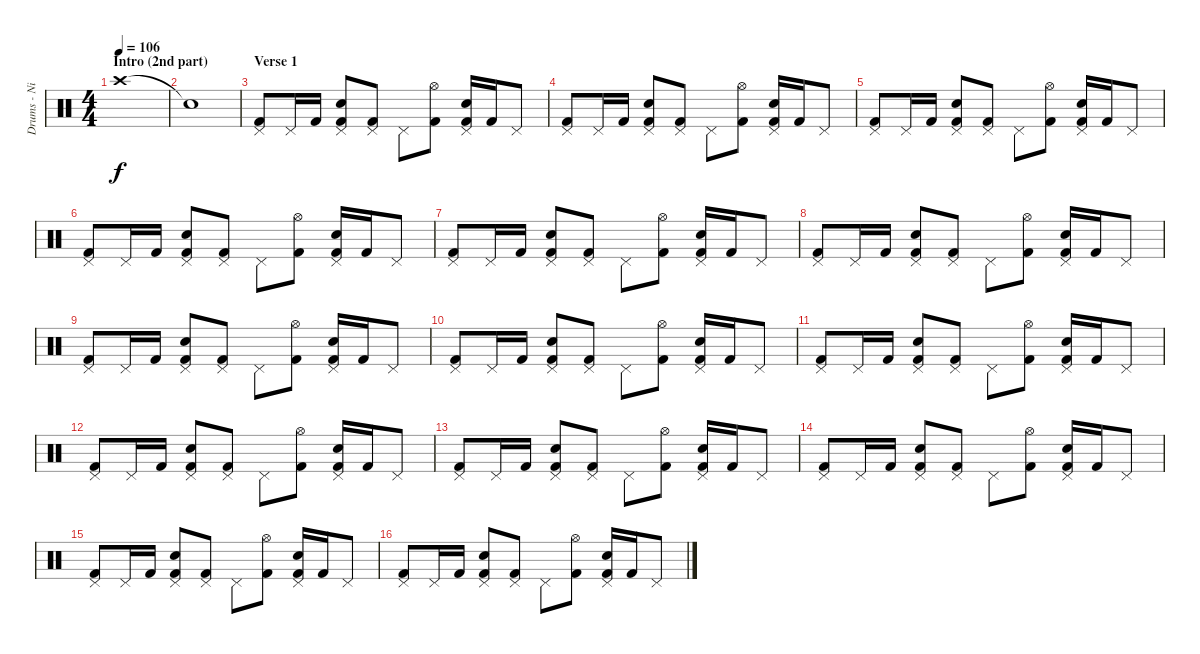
\track ("Drums - Nick Van Gelder" "Drums - Ni") {instrument percussion}
\staff {score}
\articulation defaults
\ts (4 4)
\section ("" "Intro (2nd part)")
\tempo 106
\clef neutral
\ks c "Crash high (hit)".1{dy f}
|
"Snare (hit)"{t}.1 |
\section ("" "Verse 1")
("Pedal Hi-Hat (hit)" "Kick (hit) 2").8 "Pedal Hi-Hat (hit)".16 "Kick (hit) 2".16 ("Pedal Hi-Hat (hit)" "Electric Snare (hit)" "Kick (hit) 2").8 ("Pedal Hi-Hat (hit)" "Kick (hit) 2").8 "Pedal Hi-Hat (hit)".8 ("Hi-Hat (open)" "Kick (hit) 2").8 ("Pedal Hi-Hat (hit)" "Electric Snare (hit)" "Kick (hit) 2").16 "Kick (hit) 2".16 "Pedal Hi-Hat (hit)".8 |
("Pedal Hi-Hat (hit)" "Kick (hit) 2").8 "Pedal Hi-Hat (hit)".16 "Kick (hit) 2".16 ("Pedal Hi-Hat (hit)" "Electric Snare (hit)" "Kick (hit) 2").8 ("Pedal Hi-Hat (hit)" "Kick (hit) 2").8 "Pedal Hi-Hat (hit)".8 ("Hi-Hat (open)" "Kick (hit) 2").8 ("Pedal Hi-Hat (hit)" "Electric Snare (hit)" "Kick (hit) 2").16 "Kick (hit) 2".16 "Pedal Hi-Hat (hit)".8 |
("Pedal Hi-Hat (hit)" "Kick (hit) 2").8 "Pedal Hi-Hat (hit)".16 "Kick (hit) 2".16 ("Pedal Hi-Hat (hit)" "Electric Snare (hit)" "Kick (hit) 2").8 ("Pedal Hi-Hat (hit)" "Kick (hit) 2").8 "Pedal Hi-Hat (hit)".8 ("Hi-Hat (open)" "Kick (hit) 2").8 ("Pedal Hi-Hat (hit)" "Electric Snare (hit)" "Kick (hit) 2").16 "Kick (hit) 2".16 "Pedal Hi-Hat (hit)".8 |
("Pedal Hi-Hat (hit)" "Kick (hit) 2").8 "Pedal Hi-Hat (hit)".16 "Kick (hit) 2".16 ("Pedal Hi-Hat (hit)" "Electric Snare (hit)" "Kick (hit) 2").8 ("Pedal Hi-Hat (hit)" "Kick (hit) 2").8 "Pedal Hi-Hat (hit)".8 ("Hi-Hat (open)" "Kick (hit) 2").8 ("Pedal Hi-Hat (hit)" "Electric Snare (hit)" "Kick (hit) 2").16 "Kick (hit) 2".16 "Pedal Hi-Hat (hit)".8 |
("Pedal Hi-Hat (hit)" "Kick (hit) 2").8 "Pedal Hi-Hat (hit)".16 "Kick (hit) 2".16 ("Pedal Hi-Hat (hit)" "Electric Snare (hit)" "Kick (hit) 2").8 ("Pedal Hi-Hat (hit)" "Kick (hit) 2").8 "Pedal Hi-Hat (hit)".8 ("Hi-Hat (open)" "Kick (hit) 2").8 ("Pedal Hi-Hat (hit)" "Electric Snare (hit)" "Kick (hit) 2").16 "Kick (hit) 2".16 "Pedal Hi-Hat (hit)".8 |
("Pedal Hi-Hat (hit)" "Kick (hit) 2").8 "Pedal Hi-Hat (hit)".16 "Kick (hit) 2".16 ("Pedal Hi-Hat (hit)" "Electric Snare (hit)" "Kick (hit) 2").8 ("Pedal Hi-Hat (hit)" "Kick (hit) 2").8 "Pedal Hi-Hat (hit)".8 ("Hi-Hat (open)" "Kick (hit) 2").8 ("Pedal Hi-Hat (hit)" "Electric Snare (hit)" "Kick (hit) 2").16 "Kick (hit) 2".16 "Pedal Hi-Hat (hit)".8 |
("Pedal Hi-Hat (hit)" "Kick (hit) 2").8 "Pedal Hi-Hat (hit)".16 "Kick (hit) 2".16 ("Pedal Hi-Hat (hit)" "Electric Snare (hit)" "Kick (hit) 2").8 ("Pedal Hi-Hat (hit)" "Kick (hit) 2").8 "Pedal Hi-Hat (hit)".8 ("Hi-Hat (open)" "Kick (hit) 2").8 ("Pedal Hi-Hat (hit)" "Electric Snare (hit)" "Kick (hit) 2").16 "Kick (hit) 2".16 "Pedal Hi-Hat (hit)".8 |
("Pedal Hi-Hat (hit)" "Kick (hit) 2").8 "Pedal Hi-Hat (hit)".16 "Kick (hit) 2".16 ("Pedal Hi-Hat (hit)" "Electric Snare (hit)" "Kick (hit) 2").8 ("Pedal Hi-Hat (hit)" "Kick (hit) 2").8 "Pedal Hi-Hat (hit)".8 ("Hi-Hat (open)" "Kick (hit) 2").8 ("Pedal Hi-Hat (hit)" "Electric Snare (hit)" "Kick (hit) 2").16 "Kick (hit) 2".16 "Pedal Hi-Hat (hit)".8 |
("Pedal Hi-Hat (hit)" "Kick (hit) 2").8 "Pedal Hi-Hat (hit)".16 "Kick (hit) 2".16 ("Pedal Hi-Hat (hit)" "Electric Snare (hit)" "Kick (hit) 2").8 ("Pedal Hi-Hat (hit)" "Kick (hit) 2").8 "Pedal Hi-Hat (hit)".8 ("Hi-Hat (open)" "Kick (hit) 2").8 ("Pedal Hi-Hat (hit)" "Electric Snare (hit)" "Kick (hit) 2").16 "Kick (hit) 2".16 "Pedal Hi-Hat (hit)".8 |
("Pedal Hi-Hat (hit)" "Kick (hit) 2").8 "Pedal Hi-Hat (hit)".16 "Kick (hit) 2".16 ("Pedal Hi-Hat (hit)" "Electric Snare (hit)" "Kick (hit) 2").8 ("Pedal Hi-Hat (hit)" "Kick (hit) 2").8 "Pedal Hi-Hat (hit)".8 ("Hi-Hat (open)" "Kick (hit) 2").8 ("Pedal Hi-Hat (hit)" "Electric Snare (hit)" "Kick (hit) 2").16 "Kick (hit) 2".16 "Pedal Hi-Hat (hit)".8 |
("Pedal Hi-Hat (hit)" "Kick (hit) 2").8 "Pedal Hi-Hat (hit)".16 "Kick (hit) 2".16 ("Pedal Hi-Hat (hit)" "Electric Snare (hit)" "Kick (hit) 2").8 ("Pedal Hi-Hat (hit)" "Kick (hit) 2").8 "Pedal Hi-Hat (hit)".8 ("Hi-Hat (open)" "Kick (hit) 2").8 ("Pedal Hi-Hat (hit)" "Electric Snare (hit)" "Kick (hit) 2").16 "Kick (hit) 2".16 "Pedal Hi-Hat (hit)".8 |
("Pedal Hi-Hat (hit)" "Kick (hit) 2").8 "Pedal Hi-Hat (hit)".16 "Kick (hit) 2".16 ("Pedal Hi-Hat (hit)" "Electric Snare (hit)" "Kick (hit) 2").8 ("Pedal Hi-Hat (hit)" "Kick (hit) 2").8 "Pedal Hi-Hat (hit)".8 ("Hi-Hat (open)" "Kick (hit) 2").8 ("Pedal Hi-Hat (hit)" "Electric Snare (hit)" "Kick (hit) 2").16 "Kick (hit) 2".16 "Pedal Hi-Hat (hit)".8 |
("Pedal Hi-Hat (hit)" "Kick (hit) 2").8 "Pedal Hi-Hat (hit)".16 "Kick (hit) 2".16 ("Pedal Hi-Hat (hit)" "Electric Snare (hit)" "Kick (hit) 2").8 ("Pedal Hi-Hat (hit)" "Kick (hit) 2").8 "Pedal Hi-Hat (hit)".8 ("Hi-Hat (open)" "Kick (hit) 2").8 ("Pedal Hi-Hat (hit)" "Electric Snare (hit)" "Kick (hit) 2").16 "Kick (hit) 2".16 "Pedal Hi-Hat (hit)".8 |
("Pedal Hi-Hat (hit)" "Kick (hit) 2").8 "Pedal Hi-Hat (hit)".16 "Kick (hit) 2".16 ("Pedal Hi-Hat (hit)" "Electric Snare (hit)" "Kick (hit) 2").8 ("Pedal Hi-Hat (hit)" "Kick (hit) 2").8 "Pedal Hi-Hat (hit)".8 ("Hi-Hat (open)" "Kick (hit) 2").8 ("Pedal Hi-Hat (hit)" "Electric Snare (hit)" "Kick (hit) 2").16 "Kick (hit) 2".16 "Pedal Hi-Hat (hit)".8
